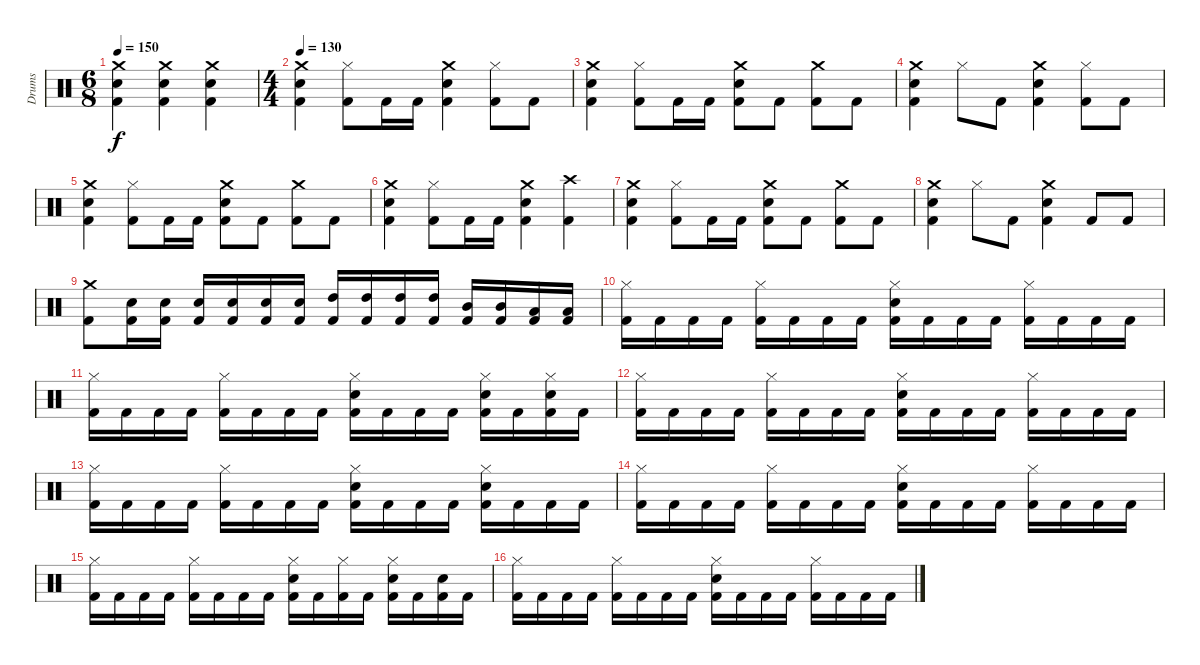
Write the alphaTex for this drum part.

\track ("Drums" "Drums") {instrument percussion}
\staff {score}
\articulation defaults
\ts (6 8)
\tempo 150
\clef neutral
\ks c
("Kick (hit) 2" "Snare (hit) 2" "Crash medium (hit)").4{dy f} ("Kick (hit) 2" "Snare (hit) 2" "Crash medium (hit)").4 ("Kick (hit) 2" "Snare (hit) 2" "Crash medium (hit)").4 |
\ts (4 4)
\tempo 130
("Kick (hit) 2" "Snare (hit) 2" "Crash medium (hit)").4 ("Kick (hit) 2" "Hi-Hat (closed)").8 "Kick (hit) 2".16 "Kick (hit) 2".16 ("Kick (hit) 2" "Snare (hit) 2" "Crash medium (hit)").4 ("Kick (hit) 2" "Hi-Hat (closed)").8 "Kick (hit) 2".8 |
("Kick (hit) 2" "Snare (hit) 2" "Crash medium (hit)").4 ("Kick (hit) 2" "Hi-Hat (closed)").8 "Kick (hit) 2".16 "Kick (hit) 2".16 ("Kick (hit) 2" "Snare (hit) 2" "Crash medium (hit)").8 "Kick (hit) 2".8 ("Kick (hit) 2" "Crash medium (hit)").8 "Kick (hit) 2".8 |
("Kick (hit) 2" "Snare (hit) 2" "Crash medium (hit)").4 "Hi-Hat (closed)".8 "Kick (hit) 2".8 ("Kick (hit) 2" "Snare (hit) 2" "Crash medium (hit)").4 ("Kick (hit) 2" "Hi-Hat (closed)").8 "Kick (hit) 2".8 |
("Kick (hit) 2" "Snare (hit) 2" "Crash medium (hit)").4 ("Kick (hit) 2" "Hi-Hat (closed)").8 "Kick (hit) 2".16 "Kick (hit) 2".16 ("Kick (hit) 2" "Snare (hit) 2" "Crash medium (hit)").8 "Kick (hit) 2".8 ("Kick (hit) 2" "Crash medium (hit)").8 "Kick (hit) 2".8 |
("Kick (hit) 2" "Snare (hit) 2" "Crash medium (hit)").4 ("Kick (hit) 2" "Hi-Hat (closed)").8 "Kick (hit) 2".16 "Kick (hit) 2".16 ("Kick (hit) 2" "Snare (hit) 2" "Crash medium (hit)").4 ("Kick (hit) 2" "Crash high (hit)").4 |
("Kick (hit) 2" "Snare (hit) 2" "Crash medium (hit)").4 ("Kick (hit) 2" "Hi-Hat (closed)").8 "Kick (hit) 2".16 "Kick (hit) 2".16 ("Kick (hit) 2" "Snare (hit) 2" "Crash medium (hit)").8 "Kick (hit) 2".8 ("Kick (hit) 2" "Crash medium (hit)").8 "Kick (hit) 2".8 |
("Kick (hit) 2" "Snare (hit) 2" "Crash medium (hit)").4 "Hi-Hat (closed)".8 "Kick (hit) 2".8 ("Kick (hit) 2" "Snare (hit) 2" "Crash medium (hit)").4 "Kick (hit) 2".8 "Kick (hit) 2".8 |
("Kick (hit) 2" "Crash medium (hit)").8 ("Kick (hit) 2" "Snare (hit) 2").16 ("Kick (hit) 2" "Snare (hit) 2").16 ("Kick (hit) 2" "Snare (hit) 2").16 ("Kick (hit) 2" "Snare (hit) 2").16 ("Kick (hit) 2" "Snare (hit) 2").16 ("Kick (hit) 2" "Snare (hit) 2").16 ("Kick (hit) 2" "High Tom (hit)").16 ("Kick (hit) 2" "High Tom (hit)").16 ("Kick (hit) 2" "High Tom (hit)").16 ("Kick (hit) 2" "High Tom (hit)").16 ("Kick (hit) 2" "Mid Tom (hit)").16 ("Kick (hit) 2" "Mid Tom (hit)").16 ("Kick (hit) 2" "Low Tom (hit)").16 ("Kick (hit) 2" "Low Tom (hit)").16 |
("Kick (hit) 2" "Hi-Hat (closed)").16 "Kick (hit) 2".16 "Kick (hit) 2".16 "Kick (hit) 2".16 ("Kick (hit) 2" "Hi-Hat (closed)").16 "Kick (hit) 2".16 "Kick (hit) 2".16 "Kick (hit) 2".16 ("Kick (hit) 2" "Snare (hit) 2" "Hi-Hat (closed)").16 "Kick (hit) 2".16 "Kick (hit) 2".16 "Kick (hit) 2".16 ("Kick (hit) 2" "Hi-Hat (closed)").16 "Kick (hit) 2".16 "Kick (hit) 2".16 "Kick (hit) 2".16 |
("Kick (hit) 2" "Hi-Hat (closed)").16 "Kick (hit) 2".16 "Kick (hit) 2".16 "Kick (hit) 2".16 ("Kick (hit) 2" "Hi-Hat (closed)").16 "Kick (hit) 2".16 "Kick (hit) 2".16 "Kick (hit) 2".16 ("Kick (hit) 2" "Snare (hit) 2" "Hi-Hat (closed)").16 "Kick (hit) 2".16 "Kick (hit) 2".16 "Kick (hit) 2".16 ("Kick (hit) 2" "Snare (hit) 2" "Hi-Hat (closed)").16 "Kick (hit) 2".16 ("Kick (hit) 2" "Snare (hit) 2" "Hi-Hat (closed)").16 "Kick (hit) 2".16 |
("Kick (hit) 2" "Hi-Hat (closed)").16 "Kick (hit) 2".16 "Kick (hit) 2".16 "Kick (hit) 2".16 ("Kick (hit) 2" "Hi-Hat (closed)").16 "Kick (hit) 2".16 "Kick (hit) 2".16 "Kick (hit) 2".16 ("Kick (hit) 2" "Snare (hit) 2" "Hi-Hat (closed)").16 "Kick (hit) 2".16 "Kick (hit) 2".16 "Kick (hit) 2".16 ("Kick (hit) 2" "Hi-Hat (closed)").16 "Kick (hit) 2".16 "Kick (hit) 2".16 "Kick (hit) 2".16 |
("Kick (hit) 2" "Hi-Hat (closed)").16 "Kick (hit) 2".16 "Kick (hit) 2".16 "Kick (hit) 2".16 ("Kick (hit) 2" "Hi-Hat (closed)").16 "Kick (hit) 2".16 "Kick (hit) 2".16 "Kick (hit) 2".16 ("Kick (hit) 2" "Snare (hit) 2" "Hi-Hat (closed)").16 "Kick (hit) 2".16 "Kick (hit) 2".16 "Kick (hit) 2".16 ("Kick (hit) 2" "Snare (hit) 2" "Hi-Hat (closed)").16 "Kick (hit) 2".16 "Kick (hit) 2".16 "Kick (hit) 2".16 |
("Kick (hit) 2" "Hi-Hat (closed)").16 "Kick (hit) 2".16 "Kick (hit) 2".16 "Kick (hit) 2".16 ("Kick (hit) 2" "Hi-Hat (closed)").16 "Kick (hit) 2".16 "Kick (hit) 2".16 "Kick (hit) 2".16 ("Kick (hit) 2" "Snare (hit) 2" "Hi-Hat (closed)").16 "Kick (hit) 2".16 "Kick (hit) 2".16 "Kick (hit) 2".16 ("Kick (hit) 2" "Hi-Hat (closed)").16 "Kick (hit) 2".16 "Kick (hit) 2".16 "Kick (hit) 2".16 |
("Kick (hit) 2" "Hi-Hat (closed)").16 "Kick (hit) 2".16 "Kick (hit) 2".16 "Kick (hit) 2".16 ("Kick (hit) 2" "Hi-Hat (closed)").16 "Kick (hit) 2".16 "Kick (hit) 2".16 "Kick (hit) 2".16 ("Kick (hit) 2" "Snare (hit) 2" "Hi-Hat (closed)").16 "Kick (hit) 2".16 ("Kick (hit) 2" "Hi-Hat (closed)").16 "Kick (hit) 2".16 ("Kick (hit) 2" "Snare (hit) 2" "Hi-Hat (closed)").16 "Kick (hit) 2".16 ("Kick (hit) 2" "Snare (hit) 2").16 "Kick (hit) 2".16 |
("Kick (hit) 2" "Hi-Hat (closed)").16 "Kick (hit) 2".16 "Kick (hit) 2".16 "Kick (hit) 2".16 ("Kick (hit) 2" "Hi-Hat (closed)").16 "Kick (hit) 2".16 "Kick (hit) 2".16 "Kick (hit) 2".16 ("Kick (hit) 2" "Snare (hit) 2" "Hi-Hat (closed)").16 "Kick (hit) 2".16 "Kick (hit) 2".16 "Kick (hit) 2".16 ("Kick (hit) 2" "Hi-Hat (closed)").16 "Kick (hit) 2".16 "Kick (hit) 2".16 "Kick (hit) 2".16
